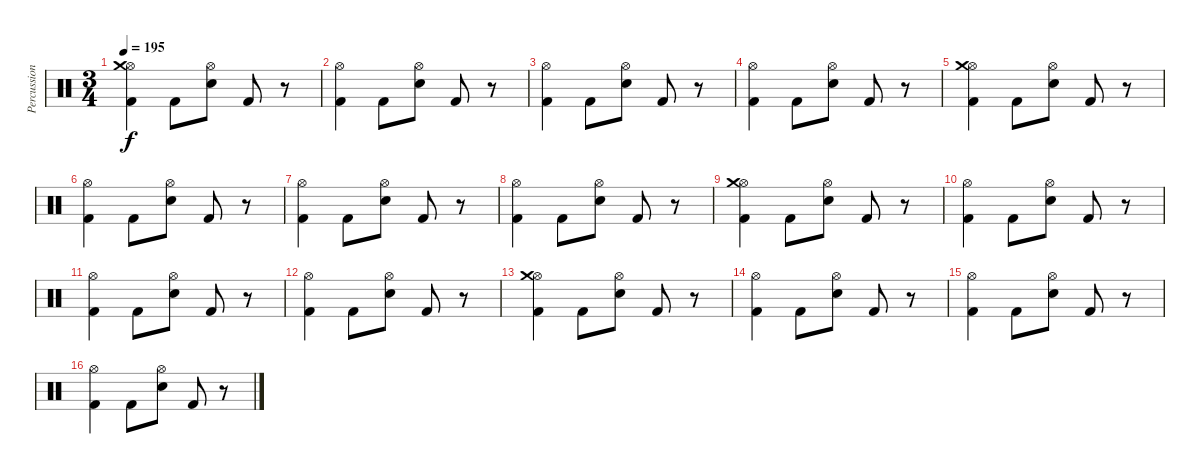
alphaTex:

\track ("Percussion" "Percussion") {instrument percussion}
\staff {score}
\articulation defaults
\ts (3 4)
\tempo 195
\clef neutral
\ks c
("Hi-Hat (open)" "Crash medium (hit)" "Kick (hit) 2").4{dy f} "Kick (hit) 2".8 ("Hi-Hat (open)" "Snare (hit) 2").8 "Kick (hit) 2".8 r.8 |
("Hi-Hat (open)" "Kick (hit) 2").4 "Kick (hit) 2".8 ("Hi-Hat (open)" "Snare (hit) 2").8 "Kick (hit) 2".8 r.8 |
("Hi-Hat (open)" "Kick (hit) 2").4 "Kick (hit) 2".8 ("Hi-Hat (open)" "Snare (hit) 2").8 "Kick (hit) 2".8 r.8 |
("Hi-Hat (open)" "Kick (hit) 2").4 "Kick (hit) 2".8 ("Hi-Hat (open)" "Snare (hit) 2").8 "Kick (hit) 2".8 r.8 |
("Hi-Hat (open)" "Crash medium (hit)" "Kick (hit) 2").4 "Kick (hit) 2".8 ("Hi-Hat (open)" "Snare (hit) 2").8 "Kick (hit) 2".8 r.8 |
("Hi-Hat (open)" "Kick (hit) 2").4 "Kick (hit) 2".8 ("Hi-Hat (open)" "Snare (hit) 2").8 "Kick (hit) 2".8 r.8 |
("Hi-Hat (open)" "Kick (hit) 2").4 "Kick (hit) 2".8 ("Hi-Hat (open)" "Snare (hit) 2").8 "Kick (hit) 2".8 r.8 |
("Hi-Hat (open)" "Kick (hit) 2").4 "Kick (hit) 2".8 ("Hi-Hat (open)" "Snare (hit) 2").8 "Kick (hit) 2".8 r.8 |
("Hi-Hat (open)" "Crash medium (hit)" "Kick (hit) 2").4 "Kick (hit) 2".8 ("Hi-Hat (open)" "Snare (hit) 2").8 "Kick (hit) 2".8 r.8 |
("Hi-Hat (open)" "Kick (hit) 2").4 "Kick (hit) 2".8 ("Hi-Hat (open)" "Snare (hit) 2").8 "Kick (hit) 2".8 r.8 |
("Hi-Hat (open)" "Kick (hit) 2").4 "Kick (hit) 2".8 ("Hi-Hat (open)" "Snare (hit) 2").8 "Kick (hit) 2".8 r.8 |
("Hi-Hat (open)" "Kick (hit) 2").4 "Kick (hit) 2".8 ("Hi-Hat (open)" "Snare (hit) 2").8 "Kick (hit) 2".8 r.8 |
("Hi-Hat (open)" "Crash medium (hit)" "Kick (hit) 2").4 "Kick (hit) 2".8 ("Hi-Hat (open)" "Snare (hit) 2").8 "Kick (hit) 2".8 r.8 |
("Hi-Hat (open)" "Kick (hit) 2").4 "Kick (hit) 2".8 ("Hi-Hat (open)" "Snare (hit) 2").8 "Kick (hit) 2".8 r.8 |
("Hi-Hat (open)" "Kick (hit) 2").4 "Kick (hit) 2".8 ("Hi-Hat (open)" "Snare (hit) 2").8 "Kick (hit) 2".8 r.8 |
("Hi-Hat (open)" "Kick (hit) 2").4 "Kick (hit) 2".8 ("Hi-Hat (open)" "Snare (hit) 2").8 "Kick (hit) 2".8 r.8
